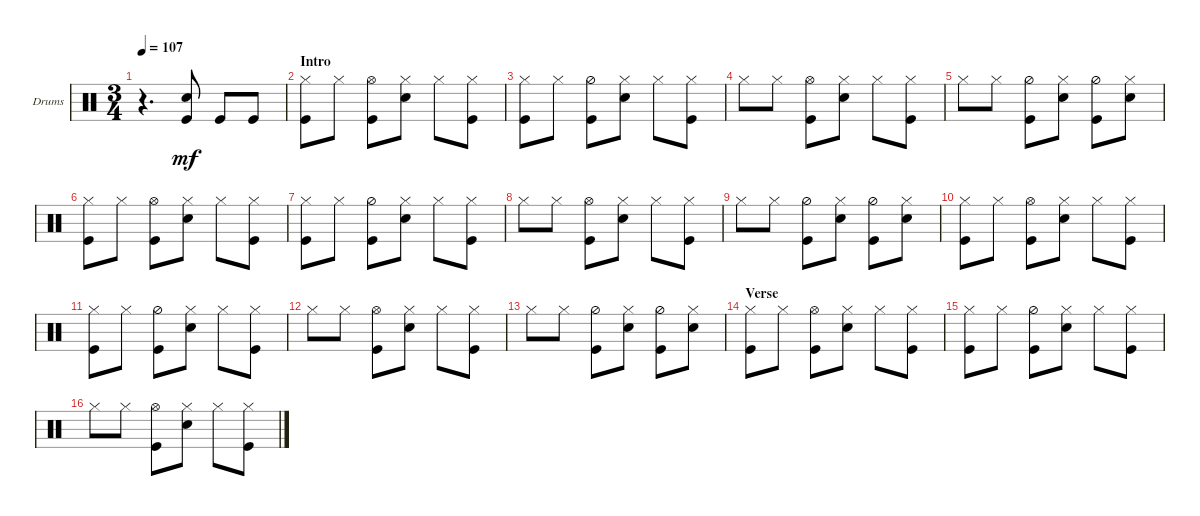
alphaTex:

\defaultSystemsLayout 4
\bracketExtendMode groupsimilarinstruments
\firstSystemTrackNameOrientation horizontal
\otherSystemsTrackNameOrientation horizontal
\track ("Drumkit" "Drums") {instrument percussion}
\staff {score}
\articulation defaults
\ts (3 4)
\tempo 107
\clef neutral
\ks c
r.4{d dy mf} ("Snare (hit) 2" "Kick (hit)").8 "Kick (hit)".8 "Kick (hit)".8 |
\section ("" "Intro")
("Hi-Hat (closed)" "Kick (hit)").8 "Hi-Hat (closed)".8 ("Hi-Hat (open)" "Kick (hit)").8 ("Snare (hit) 2" "Hi-Hat (closed)").8 "Hi-Hat (closed)".8 ("Hi-Hat (closed)" "Kick (hit)").8 |
("Hi-Hat (closed)" "Kick (hit)").8 "Hi-Hat (closed)".8 ("Hi-Hat (half)" "Kick (hit)").8 ("Hi-Hat (closed)" "Snare (hit) 2").8 "Hi-Hat (closed)".8 ("Hi-Hat (closed)" "Kick (hit)").8 |
"Hi-Hat (closed)".8 "Hi-Hat (closed)".8 ("Hi-Hat (open)" "Kick (hit)").8 ("Snare (hit) 2" "Hi-Hat (closed)").8 "Hi-Hat (closed)".8 ("Kick (hit)" "Hi-Hat (closed)").8 |
"Hi-Hat (closed)".8 "Hi-Hat (closed)".8 ("Hi-Hat (half)" "Kick (hit)").8 ("Hi-Hat (closed)" "Snare (hit) 2").8 ("Hi-Hat (half)" "Kick (hit)").8 ("Hi-Hat (closed)" "Snare (hit) 2").8 |
("Hi-Hat (closed)" "Kick (hit)").8 "Hi-Hat (closed)".8 ("Hi-Hat (open)" "Kick (hit)").8 ("Snare (hit) 2" "Hi-Hat (closed)").8 "Hi-Hat (closed)".8 ("Hi-Hat (closed)" "Kick (hit)").8 |
("Hi-Hat (closed)" "Kick (hit)").8 "Hi-Hat (closed)".8 ("Hi-Hat (half)" "Kick (hit)").8 ("Hi-Hat (closed)" "Snare (hit) 2").8 "Hi-Hat (closed)".8 ("Hi-Hat (closed)" "Kick (hit)").8 |
"Hi-Hat (closed)".8 "Hi-Hat (closed)".8 ("Hi-Hat (open)" "Kick (hit)").8 ("Snare (hit) 2" "Hi-Hat (closed)").8 "Hi-Hat (closed)".8 ("Kick (hit)" "Hi-Hat (closed)").8 |
"Hi-Hat (closed)".8 "Hi-Hat (closed)".8 ("Hi-Hat (half)" "Kick (hit)").8 ("Hi-Hat (closed)" "Snare (hit) 2").8 ("Hi-Hat (half)" "Kick (hit)").8 ("Hi-Hat (closed)" "Snare (hit) 2").8 |
("Hi-Hat (closed)" "Kick (hit)").8 "Hi-Hat (closed)".8 ("Hi-Hat (open)" "Kick (hit)").8 ("Snare (hit) 2" "Hi-Hat (closed)").8 "Hi-Hat (closed)".8 ("Hi-Hat (closed)" "Kick (hit)").8 |
("Hi-Hat (closed)" "Kick (hit)").8 "Hi-Hat (closed)".8 ("Hi-Hat (half)" "Kick (hit)").8 ("Hi-Hat (closed)" "Snare (hit) 2").8 "Hi-Hat (closed)".8 ("Hi-Hat (closed)" "Kick (hit)").8 |
"Hi-Hat (closed)".8 "Hi-Hat (closed)".8 ("Hi-Hat (open)" "Kick (hit)").8 ("Snare (hit) 2" "Hi-Hat (closed)").8 "Hi-Hat (closed)".8 ("Kick (hit)" "Hi-Hat (closed)").8 |
"Hi-Hat (closed)".8 "Hi-Hat (closed)".8 ("Hi-Hat (half)" "Kick (hit)").8 ("Hi-Hat (closed)" "Snare (hit) 2").8 ("Hi-Hat (half)" "Kick (hit)").8 ("Hi-Hat (closed)" "Snare (hit) 2").8 |
\section ("" "Verse")
("Hi-Hat (closed)" "Kick (hit)").8 "Hi-Hat (closed)".8 ("Hi-Hat (open)" "Kick (hit)").8 ("Snare (hit) 2" "Hi-Hat (closed)").8 "Hi-Hat (closed)".8 ("Hi-Hat (closed)" "Kick (hit)").8 |
("Hi-Hat (closed)" "Kick (hit)").8 "Hi-Hat (closed)".8 ("Hi-Hat (half)" "Kick (hit)").8 ("Hi-Hat (closed)" "Snare (hit) 2").8 "Hi-Hat (closed)".8 ("Hi-Hat (closed)" "Kick (hit)").8 |
"Hi-Hat (closed)".8 "Hi-Hat (closed)".8 ("Hi-Hat (open)" "Kick (hit)").8 ("Snare (hit) 2" "Hi-Hat (closed)").8 "Hi-Hat (closed)".8 ("Kick (hit)" "Hi-Hat (closed)").8
